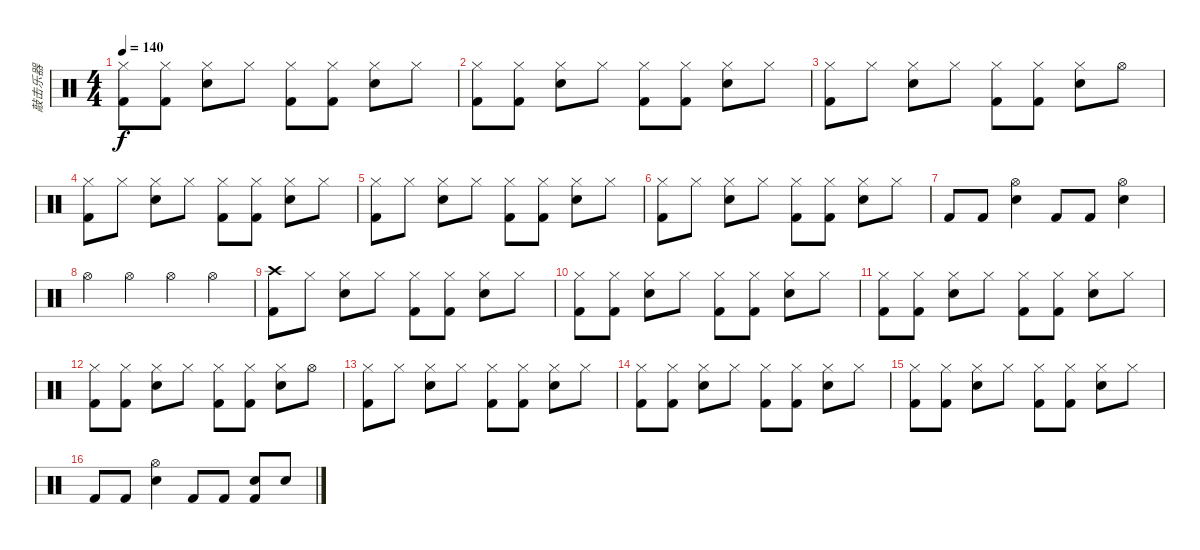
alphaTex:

\track ("敲击乐器" "敲击乐器") {instrument percussion}
\staff {score}
\articulation defaults
\ts (4 4)
\tempo 140
\clef neutral
\ks c
("Hi-Hat (closed)" "Kick (hit) 2").8{dy f} ("Hi-Hat (closed)" "Kick (hit) 2").8 ("Hi-Hat (closed)" "Electric Snare (hit)").8 "Hi-Hat (closed)".8 ("Hi-Hat (closed)" "Kick (hit) 2").8 ("Hi-Hat (closed)" "Kick (hit) 2").8 ("Hi-Hat (closed)" "Electric Snare (hit)").8 "Hi-Hat (closed)".8 |
("Hi-Hat (closed)" "Kick (hit) 2").8 ("Hi-Hat (closed)" "Kick (hit) 2").8 ("Hi-Hat (closed)" "Electric Snare (hit)").8 "Hi-Hat (closed)".8 ("Hi-Hat (closed)" "Kick (hit) 2").8 ("Hi-Hat (closed)" "Kick (hit) 2").8 ("Hi-Hat (closed)" "Electric Snare (hit)").8 "Hi-Hat (closed)".8 |
("Hi-Hat (closed)" "Kick (hit) 2").8 "Hi-Hat (closed)".8 ("Hi-Hat (closed)" "Electric Snare (hit)").8 "Hi-Hat (closed)".8 ("Hi-Hat (closed)" "Kick (hit) 2").8 ("Hi-Hat (closed)" "Kick (hit) 2").8 ("Hi-Hat (closed)" "Electric Snare (hit)").8 "Hi-Hat (open)".8 |
("Hi-Hat (closed)" "Kick (hit) 2").8 "Hi-Hat (closed)".8 ("Hi-Hat (closed)" "Electric Snare (hit)").8 "Hi-Hat (closed)".8 ("Hi-Hat (closed)" "Kick (hit) 2").8 ("Hi-Hat (closed)" "Kick (hit) 2").8 ("Hi-Hat (closed)" "Electric Snare (hit)").8 "Hi-Hat (closed)".8 |
("Hi-Hat (closed)" "Kick (hit) 2").8 "Hi-Hat (closed)".8 ("Hi-Hat (closed)" "Electric Snare (hit)").8 "Hi-Hat (closed)".8 ("Hi-Hat (closed)" "Kick (hit) 2").8 ("Hi-Hat (closed)" "Kick (hit) 2").8 ("Hi-Hat (closed)" "Electric Snare (hit)").8 "Hi-Hat (closed)".8 |
("Hi-Hat (closed)" "Kick (hit) 2").8 "Hi-Hat (closed)".8 ("Hi-Hat (closed)" "Electric Snare (hit)").8 "Hi-Hat (closed)".8 ("Hi-Hat (closed)" "Kick (hit) 2").8 ("Hi-Hat (closed)" "Kick (hit) 2").8 ("Hi-Hat (closed)" "Electric Snare (hit)").8 "Hi-Hat (closed)".8 |
"Kick (hit) 2".8 "Kick (hit) 2".8 ("Hi-Hat (open)" "Electric Snare (hit)").4 "Kick (hit) 2".8 "Kick (hit) 2".8 ("Hi-Hat (open)" "Electric Snare (hit)").4 |
"Hi-Hat (open)".4 "Hi-Hat (open)".4 "Hi-Hat (open)".4 "Hi-Hat (open)".4 |
("Crash high (hit)" "Kick (hit) 2").8 "Hi-Hat (closed)".8 ("Hi-Hat (closed)" "Electric Snare (hit)").8 "Hi-Hat (closed)".8 ("Hi-Hat (closed)" "Kick (hit) 2").8 ("Hi-Hat (closed)" "Kick (hit) 2").8 ("Hi-Hat (closed)" "Electric Snare (hit)").8 "Hi-Hat (closed)".8 |
("Hi-Hat (closed)" "Kick (hit) 2").8 ("Hi-Hat (closed)" "Kick (hit) 2").8 ("Hi-Hat (closed)" "Electric Snare (hit)").8 "Hi-Hat (closed)".8 ("Hi-Hat (closed)" "Kick (hit) 2").8 ("Hi-Hat (closed)" "Kick (hit) 2").8 ("Hi-Hat (closed)" "Electric Snare (hit)").8 "Hi-Hat (closed)".8 |
("Hi-Hat (closed)" "Kick (hit) 2").8 ("Hi-Hat (closed)" "Kick (hit) 2").8 ("Hi-Hat (closed)" "Electric Snare (hit)").8 "Hi-Hat (closed)".8 ("Hi-Hat (closed)" "Kick (hit) 2").8 ("Hi-Hat (closed)" "Kick (hit) 2").8 ("Hi-Hat (closed)" "Electric Snare (hit)").8 "Hi-Hat (closed)".8 |
("Hi-Hat (closed)" "Kick (hit) 2").8 ("Hi-Hat (closed)" "Kick (hit) 2").8 ("Hi-Hat (closed)" "Electric Snare (hit)").8 "Hi-Hat (closed)".8 ("Hi-Hat (closed)" "Kick (hit) 2").8 ("Hi-Hat (closed)" "Kick (hit) 2").8 ("Hi-Hat (closed)" "Electric Snare (hit)").8 "Hi-Hat (open)".8 |
("Hi-Hat (closed)" "Kick (hit) 2").8 "Hi-Hat (closed)".8 ("Hi-Hat (closed)" "Electric Snare (hit)").8 "Hi-Hat (closed)".8 ("Hi-Hat (closed)" "Kick (hit) 2").8 ("Hi-Hat (closed)" "Kick (hit) 2").8 ("Hi-Hat (closed)" "Electric Snare (hit)").8 "Hi-Hat (closed)".8 |
("Hi-Hat (closed)" "Kick (hit) 2").8 ("Hi-Hat (closed)" "Kick (hit) 2").8 ("Hi-Hat (closed)" "Electric Snare (hit)").8 "Hi-Hat (closed)".8 ("Hi-Hat (closed)" "Kick (hit) 2").8 ("Hi-Hat (closed)" "Kick (hit) 2").8 ("Hi-Hat (closed)" "Electric Snare (hit)").8 "Hi-Hat (closed)".8 |
("Hi-Hat (closed)" "Kick (hit) 2").8 ("Hi-Hat (closed)" "Kick (hit) 2").8 ("Hi-Hat (closed)" "Electric Snare (hit)").8 "Hi-Hat (closed)".8 ("Hi-Hat (closed)" "Kick (hit) 2").8 ("Hi-Hat (closed)" "Kick (hit) 2").8 ("Hi-Hat (closed)" "Electric Snare (hit)").8 "Hi-Hat (closed)".8 |
"Kick (hit) 2".8 "Kick (hit) 2".8 ("Hi-Hat (open)" "Electric Snare (hit)").4 "Kick (hit) 2".8 "Kick (hit) 2".8 ("Electric Snare (hit)" "Kick (hit) 2").8 "Electric Snare (hit)".8
